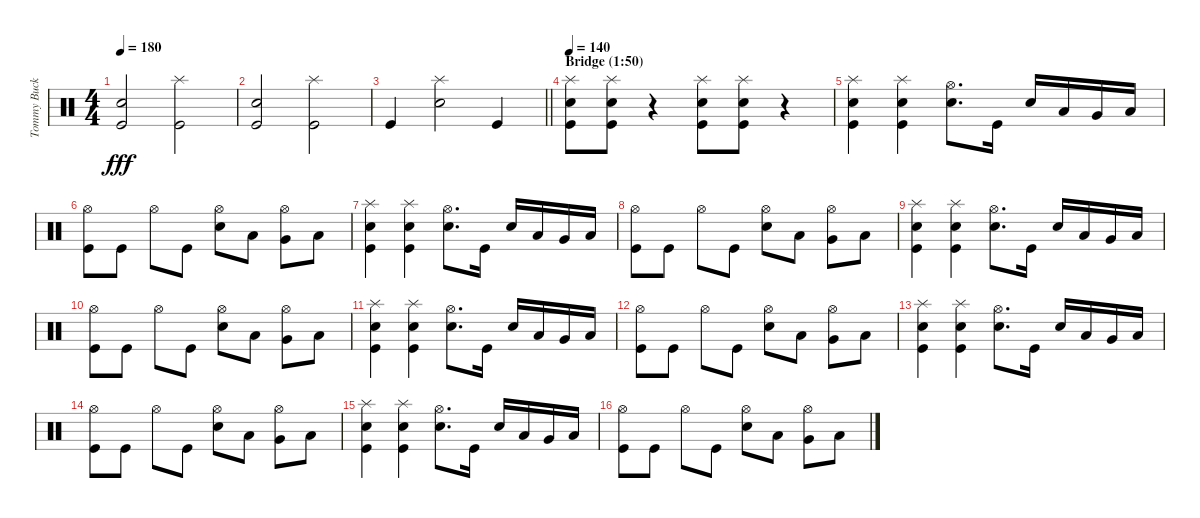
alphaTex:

\track ("Tommy Buckly (drums)" "Tommy Buck") {instrument percussion}
\staff {score}
\articulation defaults
\ts (4 4)
\tempo 180
\clef neutral
\ks c
("Electric Snare (hit)" "Kick (hit)").2{dy fff} ("Splash (hit)" "Kick (hit)").2 |
("Electric Snare (hit)" "Kick (hit)").2 ("Splash (hit)" "Kick (hit)").2 |
\barLineRight lightlight "Kick (hit)".4
("Splash (hit)" "Electric Snare (hit)").2 "Kick (hit)".4 |
\section ("" "Bridge (1:50)")
\tempo 140
("Splash (hit)" "Electric Snare (hit)" "Kick (hit)").8 ("Splash (hit)" "Electric Snare (hit)" "Kick (hit)").8 r.4 ("Splash (hit)" "Electric Snare (hit)" "Kick (hit)").8 ("Splash (hit)" "Electric Snare (hit)" "Kick (hit)").8 r.4 |
("Splash (hit)" "Electric Snare (hit)" "Kick (hit)").4 ("Splash (hit)" "Electric Snare (hit)" "Kick (hit)").4 ("Hi-Hat (open)" "Electric Snare (hit)").8{d} "Kick (hit)".16 "Electric Snare (hit)".16 "Low Tom (hit)".16 "Very Low Tom (hit)".16 "Low Floor Tom (hit)".16 |
("Hi-Hat (open)" "Kick (hit)").8 "Kick (hit)".8 "Hi-Hat (open)".8 "Kick (hit)".8 ("Hi-Hat (open)" "Electric Snare (hit)").8 "Low Tom (hit)".8 ("Hi-Hat (open)" "Very Low Tom (hit)").8 "Low Floor Tom (hit)".8 |
("Splash (hit)" "Electric Snare (hit)" "Kick (hit)").4 ("Splash (hit)" "Electric Snare (hit)" "Kick (hit)").4 ("Hi-Hat (open)" "Electric Snare (hit)").8{d} "Kick (hit)".16 "Electric Snare (hit)".16 "Low Tom (hit)".16 "Very Low Tom (hit)".16 "Low Floor Tom (hit)".16 |
("Hi-Hat (open)" "Kick (hit)").8 "Kick (hit)".8 "Hi-Hat (open)".8 "Kick (hit)".8 ("Hi-Hat (open)" "Electric Snare (hit)").8 "Low Tom (hit)".8 ("Hi-Hat (open)" "Very Low Tom (hit)").8 "Low Floor Tom (hit)".8 |
("Splash (hit)" "Electric Snare (hit)" "Kick (hit)").4 ("Splash (hit)" "Electric Snare (hit)" "Kick (hit)").4 ("Hi-Hat (open)" "Electric Snare (hit)").8{d} "Kick (hit)".16 "Electric Snare (hit)".16 "Low Tom (hit)".16 "Very Low Tom (hit)".16 "Low Floor Tom (hit)".16 |
("Hi-Hat (open)" "Kick (hit)").8 "Kick (hit)".8 "Hi-Hat (open)".8 "Kick (hit)".8 ("Hi-Hat (open)" "Electric Snare (hit)").8 "Low Tom (hit)".8 ("Hi-Hat (open)" "Very Low Tom (hit)").8 "Low Floor Tom (hit)".8 |
("Splash (hit)" "Electric Snare (hit)" "Kick (hit)").4 ("Splash (hit)" "Electric Snare (hit)" "Kick (hit)").4 ("Hi-Hat (open)" "Electric Snare (hit)").8{d} "Kick (hit)".16 "Electric Snare (hit)".16 "Low Tom (hit)".16 "Very Low Tom (hit)".16 "Low Floor Tom (hit)".16 |
("Hi-Hat (open)" "Kick (hit)").8 "Kick (hit)".8 "Hi-Hat (open)".8 "Kick (hit)".8 ("Hi-Hat (open)" "Electric Snare (hit)").8 "Low Tom (hit)".8 ("Hi-Hat (open)" "Very Low Tom (hit)").8 "Low Floor Tom (hit)".8 |
("Splash (hit)" "Electric Snare (hit)" "Kick (hit)").4 ("Splash (hit)" "Electric Snare (hit)" "Kick (hit)").4 ("Hi-Hat (open)" "Electric Snare (hit)").8{d} "Kick (hit)".16 "Electric Snare (hit)".16 "Low Tom (hit)".16 "Very Low Tom (hit)".16 "Low Floor Tom (hit)".16 |
("Hi-Hat (open)" "Kick (hit)").8 "Kick (hit)".8 "Hi-Hat (open)".8 "Kick (hit)".8 ("Hi-Hat (open)" "Electric Snare (hit)").8 "Low Tom (hit)".8 ("Hi-Hat (open)" "Very Low Tom (hit)").8 "Low Floor Tom (hit)".8 |
("Splash (hit)" "Electric Snare (hit)" "Kick (hit)").4 ("Splash (hit)" "Electric Snare (hit)" "Kick (hit)").4 ("Hi-Hat (open)" "Electric Snare (hit)").8{d} "Kick (hit)".16 "Electric Snare (hit)".16 "Low Tom (hit)".16 "Very Low Tom (hit)".16 "Low Floor Tom (hit)".16 |
("Hi-Hat (open)" "Kick (hit)").8 "Kick (hit)".8 "Hi-Hat (open)".8 "Kick (hit)".8 ("Hi-Hat (open)" "Electric Snare (hit)").8 "Low Tom (hit)".8 ("Hi-Hat (open)" "Very Low Tom (hit)").8 "Low Floor Tom (hit)".8
